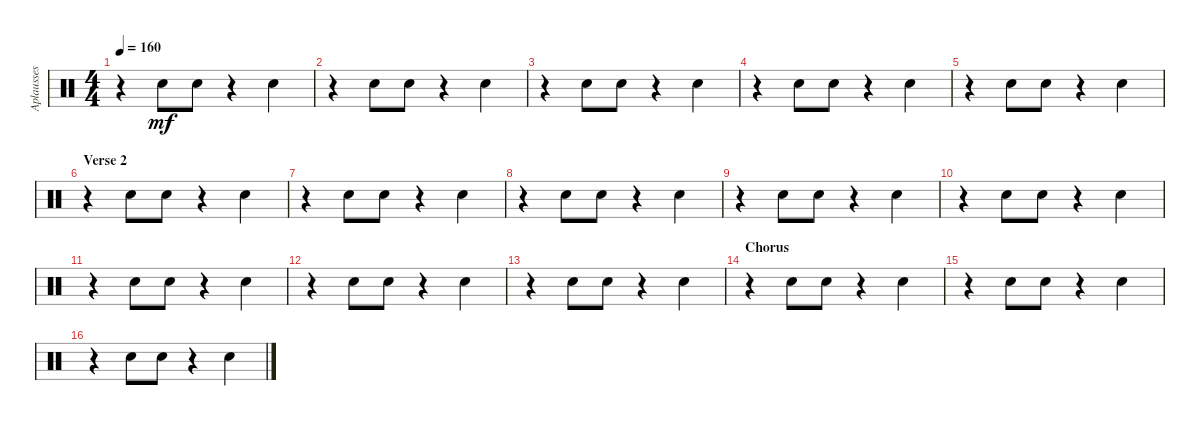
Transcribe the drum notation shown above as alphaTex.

\track ("Aplausses" "Aplausses") {instrument percussion}
\staff {score}
\articulation defaults
\ts (4 4)
\tempo 160
\clef neutral
\ks c
r.4{dy mf} "Hand Clap (hit)".8 "Hand Clap (hit)".8 r.4 "Hand Clap (hit)".4 |
r.4 "Hand Clap (hit)".8 "Hand Clap (hit)".8 r.4 "Hand Clap (hit)".4 |
r.4 "Hand Clap (hit)".8 "Hand Clap (hit)".8 r.4 "Hand Clap (hit)".4 |
r.4 "Hand Clap (hit)".8 "Hand Clap (hit)".8 r.4 "Hand Clap (hit)".4 |
r.4 "Hand Clap (hit)".8 "Hand Clap (hit)".8 r.4 "Hand Clap (hit)".4 |
\section ("" "Verse 2")
r.4 "Hand Clap (hit)".8 "Hand Clap (hit)".8 r.4 "Hand Clap (hit)".4 |
r.4 "Hand Clap (hit)".8 "Hand Clap (hit)".8 r.4 "Hand Clap (hit)".4 |
r.4 "Hand Clap (hit)".8 "Hand Clap (hit)".8 r.4 "Hand Clap (hit)".4 |
r.4 "Hand Clap (hit)".8 "Hand Clap (hit)".8 r.4 "Hand Clap (hit)".4 |
r.4 "Hand Clap (hit)".8 "Hand Clap (hit)".8 r.4 "Hand Clap (hit)".4 |
r.4 "Hand Clap (hit)".8 "Hand Clap (hit)".8 r.4 "Hand Clap (hit)".4 |
r.4 "Hand Clap (hit)".8 "Hand Clap (hit)".8 r.4 "Hand Clap (hit)".4 |
r.4 "Hand Clap (hit)".8 "Hand Clap (hit)".8 r.4 "Hand Clap (hit)".4 |
\section ("" "Chorus")
r.4 "Hand Clap (hit)".8 "Hand Clap (hit)".8 r.4 "Hand Clap (hit)".4 |
r.4 "Hand Clap (hit)".8 "Hand Clap (hit)".8 r.4 "Hand Clap (hit)".4 |
r.4 "Hand Clap (hit)".8 "Hand Clap (hit)".8 r.4 "Hand Clap (hit)".4
